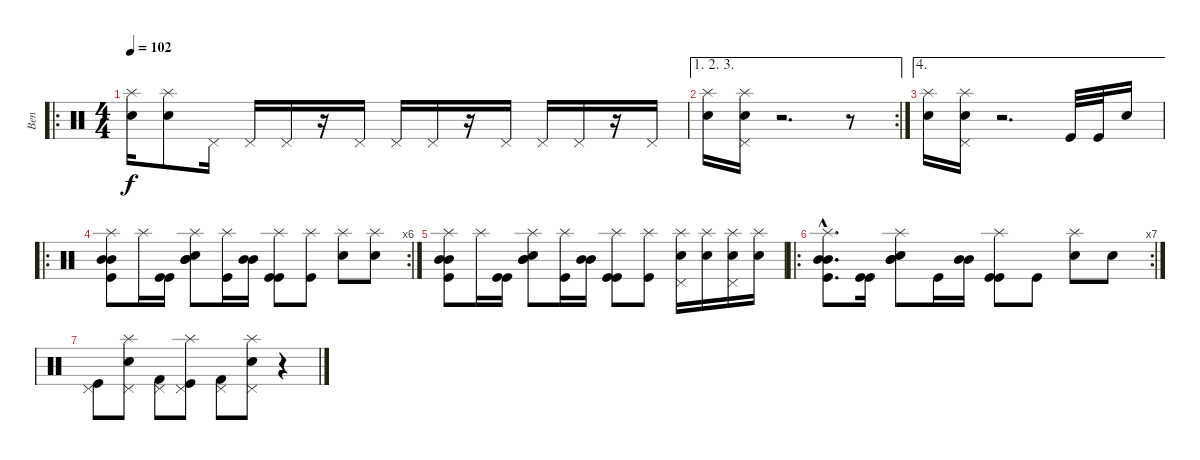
\track ("Ben" "Ben") {instrument percussion}
\staff {score}
\articulation defaults
\ro
\ts (4 4)
\tempo 102
\clef neutral
\ks c
("Splash (hit)" "Snare (hit) 2").16{dy f} ("Splash (hit)" "Snare (hit) 2").8 "Pedal Hi-Hat (hit)".16 "Pedal Hi-Hat (hit)".16 "Pedal Hi-Hat (hit)".16 r.16 "Pedal Hi-Hat (hit)".16 "Pedal Hi-Hat (hit)".16 "Pedal Hi-Hat (hit)".16 r.16 "Pedal Hi-Hat (hit)".16 "Pedal Hi-Hat (hit)".16 "Pedal Hi-Hat (hit)".16 r.16 "Pedal Hi-Hat (hit)".16 |
\ae (1 2 3)
\rc 2
("Splash (hit)" "Snare (hit) 2").16 ("Splash (hit)" "Pedal Hi-Hat (hit)" "Snare (hit) 2").16 r.2{d} r.8 |
\ae 4
("Splash (hit)" "Snare (hit) 2").16 ("Splash (hit)" "Pedal Hi-Hat (hit)" "Snare (hit) 2").16 r.2{d} "Kick (hit)".32 "Kick (hit)".32 "Electric Snare (hit)".16 |
\ro
\rc 6
("Splash (hit)" "Mid Tom (hit)" "Mid Tom (hit)" "Kick (hit)").8 "Splash (hit)".16 ("Kick (hit)" "Kick (hit)").16 ("Splash (hit)" "Mid Tom (hit)" "Mid Tom (hit)" "Electric Snare (hit)").8 ("Splash (hit)" "Kick (hit)").16 ("Mid Tom (hit)" "Mid Tom (hit)").16 ("Splash (hit)" "Kick (hit)" "Kick (hit)").8 ("Splash (hit)" "Kick (hit)").8 ("Splash (hit)" "Electric Snare (hit)").8 ("Splash (hit)" "Electric Snare (hit)").8 |
("Splash (hit)" "Mid Tom (hit)" "Mid Tom (hit)" "Kick (hit)").8 "Splash (hit)".16 ("Kick (hit)" "Kick (hit)").16 ("Splash (hit)" "Mid Tom (hit)" "Mid Tom (hit)" "Electric Snare (hit)").8 ("Splash (hit)" "Kick (hit)").16 ("Mid Tom (hit)" "Mid Tom (hit)").16 ("Splash (hit)" "Kick (hit)" "Kick (hit)").8 ("Splash (hit)" "Kick (hit)").8 ("Splash (hit)" "Pedal Hi-Hat (hit)" "Electric Snare (hit)").16 ("Splash (hit)" "Electric Snare (hit)").16 ("Splash (hit)" "Pedal Hi-Hat (hit)" "Electric Snare (hit)").16 ("Splash (hit)" "Electric Snare (hit)").16 |
\ro
\rc 7
("Splash (hit)"{hac} "Mid Tom (hit)"{hac} "Mid Tom (hit)"{hac} "Kick (hit)"{hac}).8{d} ("Kick (hit)" "Kick (hit)").16 ("Splash (hit)" "Mid Tom (hit)" "Mid Tom (hit)" "Electric Snare (hit)").8 "Kick (hit)".16 ("Mid Tom (hit)" "Mid Tom (hit)").16 ("Splash (hit)" "Kick (hit)" "Kick (hit)").8 "Kick (hit)".8 ("Splash (hit)" "Electric Snare (hit)").8 "Electric Snare (hit)".8 |
("Pedal Hi-Hat (hit)" "Kick (hit)").8 ("Splash (hit)" "Pedal Hi-Hat (hit)" "Electric Snare (hit)").8 ("Pedal Hi-Hat (hit)" "Kick (hit) 2").8 ("Splash (hit)" "Pedal Hi-Hat (hit)" "Kick (hit)").8 ("Pedal Hi-Hat (hit)" "Kick (hit) 2").8 ("Splash (hit)" "Pedal Hi-Hat (hit)" "Electric Snare (hit)").8 r.4
